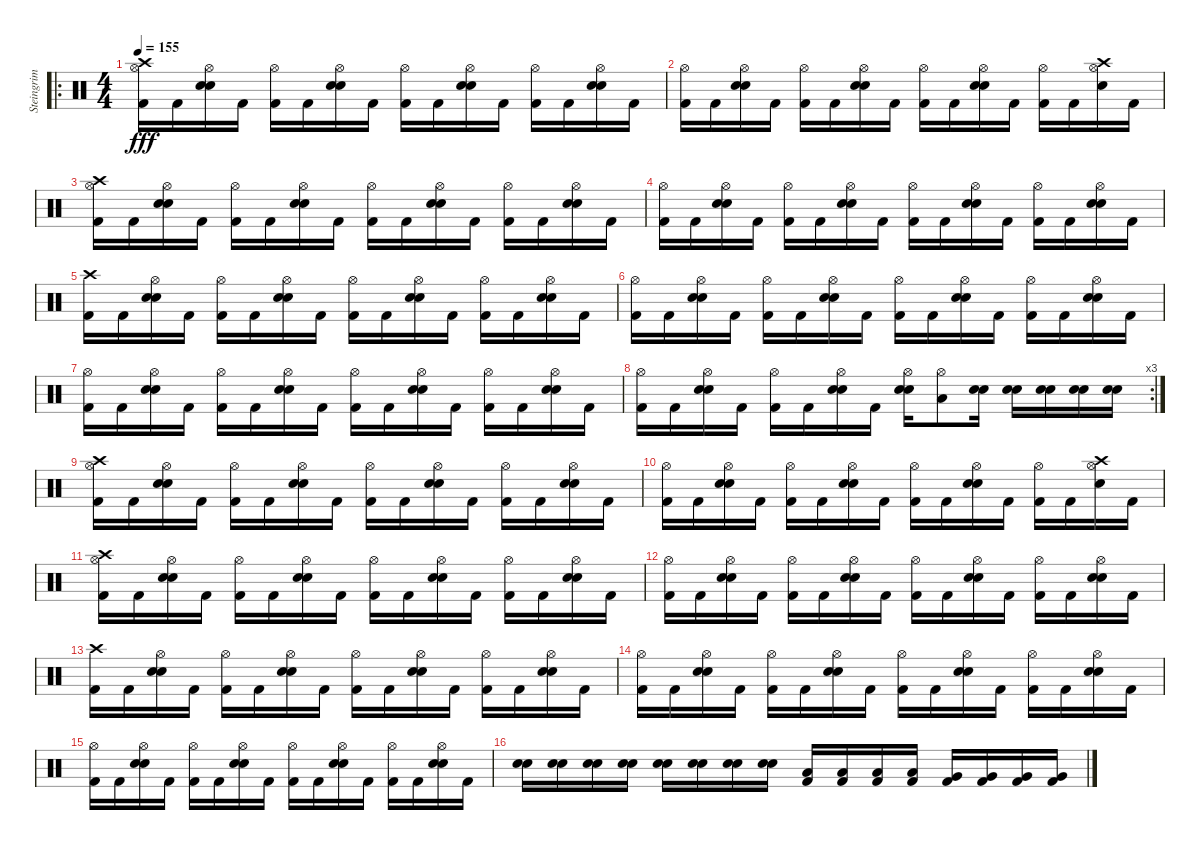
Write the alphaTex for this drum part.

\track ("Steingrim" "Steingrim") {instrument percussion}
\staff {score}
\articulation defaults
\ro
\ts (4 4)
\tempo 155
\clef neutral
\ks c
("Kick (hit) 2" "Hi-Hat (open)" "Crash high (hit)").16{dy fff} "Kick (hit) 2".16 ("Snare (hit) 2" "Electric Snare (hit)" "Hi-Hat (open)").16 "Kick (hit) 2".16 ("Kick (hit) 2" "Hi-Hat (open)").16 "Kick (hit) 2".16 ("Snare (hit) 2" "Electric Snare (hit)" "Hi-Hat (open)").16 "Kick (hit) 2".16 ("Kick (hit) 2" "Hi-Hat (open)").16 "Kick (hit) 2".16 ("Snare (hit) 2" "Electric Snare (hit)" "Hi-Hat (open)").16 "Kick (hit) 2".16 ("Kick (hit) 2" "Hi-Hat (open)").16 "Kick (hit) 2".16 ("Snare (hit) 2" "Electric Snare (hit)" "Hi-Hat (open)").16 "Kick (hit) 2".16 |
("Kick (hit) 2" "Hi-Hat (open)").16 "Kick (hit) 2".16 ("Snare (hit) 2" "Electric Snare (hit)" "Hi-Hat (open)").16 "Kick (hit) 2".16 ("Kick (hit) 2" "Hi-Hat (open)").16 "Kick (hit) 2".16 ("Snare (hit) 2" "Electric Snare (hit)" "Hi-Hat (open)").16 "Kick (hit) 2".16 ("Kick (hit) 2" "Hi-Hat (open)").16 "Kick (hit) 2".16 ("Snare (hit) 2" "Electric Snare (hit)" "Hi-Hat (open)").16 "Kick (hit) 2".16 ("Kick (hit) 2" "Hi-Hat (open)").16 "Kick (hit) 2".16 ("Snare (hit) 2" "Crash high (hit)" "Hi-Hat (open)").16 "Kick (hit) 2".16 |
("Kick (hit) 2" "Hi-Hat (open)" "Crash high (hit)").16 "Kick (hit) 2".16 ("Snare (hit) 2" "Electric Snare (hit)" "Hi-Hat (open)").16 "Kick (hit) 2".16 ("Kick (hit) 2" "Hi-Hat (open)").16 "Kick (hit) 2".16 ("Snare (hit) 2" "Electric Snare (hit)" "Hi-Hat (open)").16 "Kick (hit) 2".16 ("Kick (hit) 2" "Hi-Hat (open)").16 "Kick (hit) 2".16 ("Snare (hit) 2" "Electric Snare (hit)" "Hi-Hat (open)").16 "Kick (hit) 2".16 ("Kick (hit) 2" "Hi-Hat (open)").16 "Kick (hit) 2".16 ("Snare (hit) 2" "Electric Snare (hit)" "Hi-Hat (open)").16 "Kick (hit) 2".16 |
("Kick (hit) 2" "Hi-Hat (open)").16 "Kick (hit) 2".16 ("Snare (hit) 2" "Electric Snare (hit)" "Hi-Hat (open)").16 "Kick (hit) 2".16 ("Kick (hit) 2" "Hi-Hat (open)").16 "Kick (hit) 2".16 ("Snare (hit) 2" "Electric Snare (hit)" "Hi-Hat (open)").16 "Kick (hit) 2".16 ("Kick (hit) 2" "Hi-Hat (open)").16 "Kick (hit) 2".16 ("Snare (hit) 2" "Electric Snare (hit)" "Hi-Hat (open)").16 "Kick (hit) 2".16 ("Kick (hit) 2" "Hi-Hat (open)").16 "Kick (hit) 2".16 ("Snare (hit) 2" "Electric Snare (hit)" "Hi-Hat (open)").16 "Kick (hit) 2".16 |
("Kick (hit) 2" "Crash high (hit)").16 "Kick (hit) 2".16 ("Snare (hit) 2" "Electric Snare (hit)" "Hi-Hat (open)").16 "Kick (hit) 2".16 ("Kick (hit) 2" "Hi-Hat (open)").16 "Kick (hit) 2".16 ("Snare (hit) 2" "Electric Snare (hit)" "Hi-Hat (open)").16 "Kick (hit) 2".16 ("Kick (hit) 2" "Hi-Hat (open)").16 "Kick (hit) 2".16 ("Snare (hit) 2" "Electric Snare (hit)" "Hi-Hat (open)").16 "Kick (hit) 2".16 ("Kick (hit) 2" "Hi-Hat (open)").16 "Kick (hit) 2".16 ("Snare (hit) 2" "Electric Snare (hit)" "Hi-Hat (open)").16 "Kick (hit) 2".16 |
("Kick (hit) 2" "Hi-Hat (open)").16 "Kick (hit) 2".16 ("Snare (hit) 2" "Electric Snare (hit)" "Hi-Hat (open)").16 "Kick (hit) 2".16 ("Kick (hit) 2" "Hi-Hat (open)").16 "Kick (hit) 2".16 ("Snare (hit) 2" "Electric Snare (hit)" "Hi-Hat (open)").16 "Kick (hit) 2".16 ("Kick (hit) 2" "Hi-Hat (open)").16 "Kick (hit) 2".16 ("Snare (hit) 2" "Electric Snare (hit)" "Hi-Hat (open)").16 "Kick (hit) 2".16 ("Kick (hit) 2" "Hi-Hat (open)").16 "Kick (hit) 2".16 ("Snare (hit) 2" "Electric Snare (hit)" "Hi-Hat (open)").16 "Kick (hit) 2".16 |
("Kick (hit) 2" "Hi-Hat (open)").16 "Kick (hit) 2".16 ("Snare (hit) 2" "Electric Snare (hit)" "Hi-Hat (open)").16 "Kick (hit) 2".16 ("Kick (hit) 2" "Hi-Hat (open)").16 "Kick (hit) 2".16 ("Snare (hit) 2" "Electric Snare (hit)" "Hi-Hat (open)").16 "Kick (hit) 2".16 ("Kick (hit) 2" "Hi-Hat (open)").16 "Kick (hit) 2".16 ("Snare (hit) 2" "Electric Snare (hit)" "Hi-Hat (open)").16 "Kick (hit) 2".16 ("Kick (hit) 2" "Hi-Hat (open)").16 "Kick (hit) 2".16 ("Snare (hit) 2" "Electric Snare (hit)" "Hi-Hat (open)").16 "Kick (hit) 2".16 |
\rc 3
("Kick (hit) 2" "Hi-Hat (open)").16 "Kick (hit) 2".16 ("Snare (hit) 2" "Electric Snare (hit)" "Hi-Hat (open)").16 "Kick (hit) 2".16 ("Kick (hit) 2" "Hi-Hat (open)").16 "Kick (hit) 2".16 ("Snare (hit) 2" "Electric Snare (hit)" "Hi-Hat (open)").16 "Kick (hit) 2".16 ("Snare (hit) 2" "Electric Snare (hit)" "Hi-Hat (open)").16 ("Low Tom (hit)" "Hi-Hat (open)").8 ("Snare (hit) 2" "Electric Snare (hit)").16 ("Snare (hit) 2" "Electric Snare (hit)").16 ("Snare (hit) 2" "Electric Snare (hit)").16 ("Snare (hit) 2" "Electric Snare (hit)").16 ("Snare (hit) 2" "Electric Snare (hit)").16 |
("Kick (hit) 2" "Hi-Hat (open)" "Crash high (hit)").16 "Kick (hit) 2".16 ("Snare (hit) 2" "Electric Snare (hit)" "Hi-Hat (open)").16 "Kick (hit) 2".16 ("Kick (hit) 2" "Hi-Hat (open)").16 "Kick (hit) 2".16 ("Snare (hit) 2" "Electric Snare (hit)" "Hi-Hat (open)").16 "Kick (hit) 2".16 ("Kick (hit) 2" "Hi-Hat (open)").16 "Kick (hit) 2".16 ("Snare (hit) 2" "Electric Snare (hit)" "Hi-Hat (open)").16 "Kick (hit) 2".16 ("Kick (hit) 2" "Hi-Hat (open)").16 "Kick (hit) 2".16 ("Snare (hit) 2" "Electric Snare (hit)" "Hi-Hat (open)").16 "Kick (hit) 2".16 |
("Kick (hit) 2" "Hi-Hat (open)").16 "Kick (hit) 2".16 ("Snare (hit) 2" "Electric Snare (hit)" "Hi-Hat (open)").16 "Kick (hit) 2".16 ("Kick (hit) 2" "Hi-Hat (open)").16 "Kick (hit) 2".16 ("Snare (hit) 2" "Electric Snare (hit)" "Hi-Hat (open)").16 "Kick (hit) 2".16 ("Kick (hit) 2" "Hi-Hat (open)").16 "Kick (hit) 2".16 ("Snare (hit) 2" "Electric Snare (hit)" "Hi-Hat (open)").16 "Kick (hit) 2".16 ("Kick (hit) 2" "Hi-Hat (open)").16 "Kick (hit) 2".16 ("Snare (hit) 2" "Crash high (hit)" "Hi-Hat (open)").16 "Kick (hit) 2".16 |
("Kick (hit) 2" "Hi-Hat (open)" "Crash high (hit)").16 "Kick (hit) 2".16 ("Snare (hit) 2" "Electric Snare (hit)" "Hi-Hat (open)").16 "Kick (hit) 2".16 ("Kick (hit) 2" "Hi-Hat (open)").16 "Kick (hit) 2".16 ("Snare (hit) 2" "Electric Snare (hit)" "Hi-Hat (open)").16 "Kick (hit) 2".16 ("Kick (hit) 2" "Hi-Hat (open)").16 "Kick (hit) 2".16 ("Snare (hit) 2" "Electric Snare (hit)" "Hi-Hat (open)").16 "Kick (hit) 2".16 ("Kick (hit) 2" "Hi-Hat (open)").16 "Kick (hit) 2".16 ("Snare (hit) 2" "Electric Snare (hit)" "Hi-Hat (open)").16 "Kick (hit) 2".16 |
("Kick (hit) 2" "Hi-Hat (open)").16 "Kick (hit) 2".16 ("Snare (hit) 2" "Electric Snare (hit)" "Hi-Hat (open)").16 "Kick (hit) 2".16 ("Kick (hit) 2" "Hi-Hat (open)").16 "Kick (hit) 2".16 ("Snare (hit) 2" "Electric Snare (hit)" "Hi-Hat (open)").16 "Kick (hit) 2".16 ("Kick (hit) 2" "Hi-Hat (open)").16 "Kick (hit) 2".16 ("Snare (hit) 2" "Electric Snare (hit)" "Hi-Hat (open)").16 "Kick (hit) 2".16 ("Kick (hit) 2" "Hi-Hat (open)").16 "Kick (hit) 2".16 ("Snare (hit) 2" "Electric Snare (hit)" "Hi-Hat (open)").16 "Kick (hit) 2".16 |
("Kick (hit) 2" "Crash high (hit)").16 "Kick (hit) 2".16 ("Snare (hit) 2" "Electric Snare (hit)" "Hi-Hat (open)").16 "Kick (hit) 2".16 ("Kick (hit) 2" "Hi-Hat (open)").16 "Kick (hit) 2".16 ("Snare (hit) 2" "Electric Snare (hit)" "Hi-Hat (open)").16 "Kick (hit) 2".16 ("Kick (hit) 2" "Hi-Hat (open)").16 "Kick (hit) 2".16 ("Snare (hit) 2" "Electric Snare (hit)" "Hi-Hat (open)").16 "Kick (hit) 2".16 ("Kick (hit) 2" "Hi-Hat (open)").16 "Kick (hit) 2".16 ("Snare (hit) 2" "Electric Snare (hit)" "Hi-Hat (open)").16 "Kick (hit) 2".16 |
("Kick (hit) 2" "Hi-Hat (open)").16 "Kick (hit) 2".16 ("Snare (hit) 2" "Electric Snare (hit)" "Hi-Hat (open)").16 "Kick (hit) 2".16 ("Kick (hit) 2" "Hi-Hat (open)").16 "Kick (hit) 2".16 ("Snare (hit) 2" "Electric Snare (hit)" "Hi-Hat (open)").16 "Kick (hit) 2".16 ("Kick (hit) 2" "Hi-Hat (open)").16 "Kick (hit) 2".16 ("Snare (hit) 2" "Electric Snare (hit)" "Hi-Hat (open)").16 "Kick (hit) 2".16 ("Kick (hit) 2" "Hi-Hat (open)").16 "Kick (hit) 2".16 ("Snare (hit) 2" "Electric Snare (hit)" "Hi-Hat (open)").16 "Kick (hit) 2".16 |
("Kick (hit) 2" "Hi-Hat (open)").16 "Kick (hit) 2".16 ("Snare (hit) 2" "Electric Snare (hit)" "Hi-Hat (open)").16 "Kick (hit) 2".16 ("Kick (hit) 2" "Hi-Hat (open)").16 "Kick (hit) 2".16 ("Snare (hit) 2" "Electric Snare (hit)" "Hi-Hat (open)").16 "Kick (hit) 2".16 ("Kick (hit) 2" "Hi-Hat (open)").16 "Kick (hit) 2".16 ("Snare (hit) 2" "Electric Snare (hit)" "Hi-Hat (open)").16 "Kick (hit) 2".16 ("Kick (hit) 2" "Hi-Hat (open)").16 "Kick (hit) 2".16 ("Snare (hit) 2" "Electric Snare (hit)" "Hi-Hat (open)").16 "Kick (hit) 2".16 |
("Snare (hit) 2" "Electric Snare (hit)").16 ("Snare (hit) 2" "Electric Snare (hit)").16 ("Snare (hit) 2" "Electric Snare (hit)").16 ("Snare (hit) 2" "Electric Snare (hit)").16 ("Snare (hit) 2" "Electric Snare (hit)").16 ("Snare (hit) 2" "Electric Snare (hit)").16 ("Snare (hit) 2" "Electric Snare (hit)").16 ("Snare (hit) 2" "Electric Snare (hit)").16 ("Low Tom (hit)" "Kick (hit) 2").16 ("Low Tom (hit)" "Kick (hit) 2").16 ("Low Tom (hit)" "Kick (hit) 2").16 ("Low Tom (hit)" "Kick (hit) 2").16 ("Very Low Tom (hit)" "Kick (hit) 2").16 ("Very Low Tom (hit)" "Kick (hit) 2").16 ("Very Low Tom (hit)" "Kick (hit) 2").16 ("Very Low Tom (hit)" "Kick (hit) 2").16
